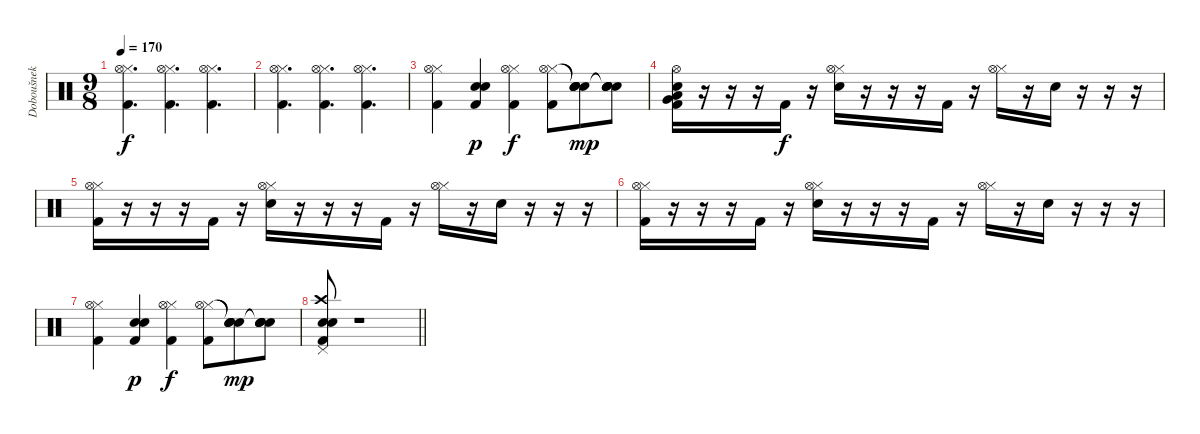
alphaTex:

\track ("Doboušnek" "Doboušnek") {instrument percussion}
\staff {score}
\articulation defaults
\ts (9 8)
\tempo 170
\clef neutral
\ks c
("Hi-Hat (closed)" "Hi-Hat (open)" "Kick (hit) 2").4{d dy f} ("Hi-Hat (closed)" "Hi-Hat (open)" "Kick (hit) 2").4{d} ("Hi-Hat (closed)" "Hi-Hat (open)" "Kick (hit) 2").4{d} |
("Hi-Hat (closed)" "Hi-Hat (open)" "Kick (hit) 2").4{d} ("Hi-Hat (closed)" "Hi-Hat (open)" "Kick (hit) 2").4{d} ("Hi-Hat (closed)" "Hi-Hat (open)" "Kick (hit) 2").4{d} |
("Hi-Hat (closed)" "Hi-Hat (open)" "Kick (hit) 2").4 ("Snare (hit) 2" "Electric Snare (hit)" "Kick (hit) 2").4{dy p} ("Hi-Hat (closed)" "Hi-Hat (open)" "Kick (hit) 2").4{dy f} ("Hi-Hat (closed)" "Hi-Hat (open)" "Kick (hit) 2").8 ("Snare (hit)"{t} "Snare (hit)"{t} "Electric Snare (hit)" "Snare (hit) 2").8{dy mp} ("Snare (hit)"{t} "Snare (hit)"{t} "Electric Snare (hit)" "Snare (hit) 2").8 |
("Hi-Hat (open)" "Electric Snare (hit)" "Low Floor Tom (hit)" "Very Low Tom (hit)" "Kick (hit) 2").16 r.16 r.16 r.16 "Kick (hit) 2".16{dy f} r.16 ("Hi-Hat (closed)" "Hi-Hat (open)" "Electric Snare (hit)").16 r.16 r.16 r.16 "Kick (hit) 2".16 r.16 ("Hi-Hat (closed)" "Hi-Hat (open)").16 r.16 "Electric Snare (hit)".16 r.16 r.16 r.16 |
("Hi-Hat (closed)" "Hi-Hat (open)" "Kick (hit) 2").16 r.16 r.16 r.16 "Kick (hit) 2".16 r.16 ("Hi-Hat (closed)" "Hi-Hat (open)" "Electric Snare (hit)").16 r.16 r.16 r.16 "Kick (hit) 2".16 r.16 ("Hi-Hat (closed)" "Hi-Hat (open)").16 r.16 "Electric Snare (hit)".16 r.16 r.16 r.16 |
("Hi-Hat (closed)" "Hi-Hat (open)" "Kick (hit) 2").16 r.16 r.16 r.16 "Kick (hit) 2".16 r.16 ("Hi-Hat (closed)" "Hi-Hat (open)" "Electric Snare (hit)").16 r.16 r.16 r.16 "Kick (hit) 2".16 r.16 ("Hi-Hat (closed)" "Hi-Hat (open)").16 r.16 "Electric Snare (hit)".16 r.16 r.16 r.16 |
("Hi-Hat (closed)" "Hi-Hat (open)" "Kick (hit) 2").4 ("Snare (hit) 2" "Electric Snare (hit)" "Kick (hit) 2").4{dy p} ("Hi-Hat (closed)" "Hi-Hat (open)" "Kick (hit) 2").4{dy f} ("Hi-Hat (closed)" "Hi-Hat (open)" "Kick (hit) 2").8 ("Snare (hit)"{t} "Snare (hit)"{t} "Electric Snare (hit)" "Snare (hit) 2").8{dy mp} ("Snare (hit)"{t} "Snare (hit)"{t} "Electric Snare (hit)" "Snare (hit) 2").8 |
\barLineRight lightlight
("Crash high (hit)" "Pedal Hi-Hat (hit)" "Electric Snare (hit)" "Snare (hit) 2" "Kick (hit) 2").8 r.1
